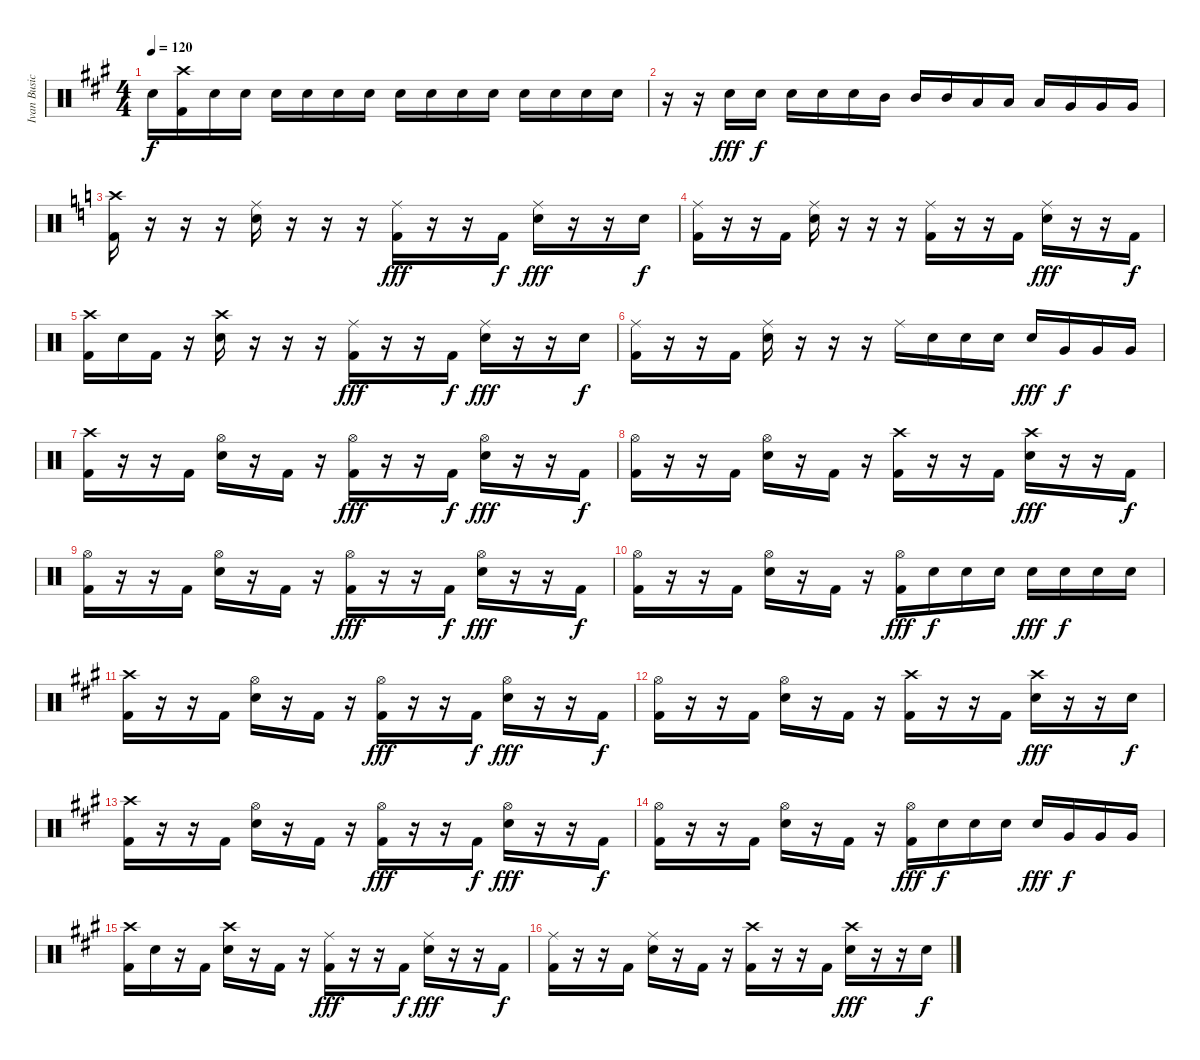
\track ("Ivan Busic" "Ivan Busic") {instrument percussion}
\staff {score}
\articulation defaults
\ts (4 4)
\tempo 120
\clef neutral
\ks a "Electric Snare (hit)".16{dy f}
("Crash high (hit)" "Kick (hit) 2").16 "Snare (hit)".16 "Snare (hit)".16 "Snare (hit)".16 "Snare (hit)".16 "Snare (hit)".16 "Snare (hit)".16 "Snare (hit)".16 "Snare (hit)".16 "Snare (hit)".16 "Snare (hit)".16 "Snare (hit)".16 "Snare (hit)".16 "Snare (hit)".16 "Snare (hit)".16 |
r.16 r.16 "Snare (hit)".16{dy fff} "Snare (hit)".16{dy f} "Electric Snare (hit)".16 "Electric Snare (hit)".16 "Electric Snare (hit)".16 "Mid Tom (hit)".16 "Mid Tom (hit)".16 "Mid Tom (hit)".16 "Low Tom (hit)".16 "Low Tom (hit)".16 "Low Tom (hit)".16 "Very Low Tom (hit)".16 "Very Low Tom (hit)".16 "Very Low Tom (hit)".16 |
\ks c
("Crash high (hit)" "Kick (hit) 2").16 r.16 r.16 r.16 ("Ride (middle)" "Electric Snare (hit)").16 r.16 r.16 r.16 ("Ride (middle)" "Kick (hit) 2").16{dy fff} r.16 r.16 "Kick (hit) 2".16{dy f} ("Ride (middle)" "Electric Snare (hit)").16{dy fff} r.16 r.16 "Snare (hit)".16{dy f} |
("Ride (middle)" "Kick (hit) 2").16 r.16 r.16 "Kick (hit) 2".16 ("Ride (middle)" "Electric Snare (hit)").16 r.16 r.16 r.16 ("Ride (middle)" "Kick (hit) 2").16 r.16 r.16 "Kick (hit) 2".16 ("Ride (middle)" "Electric Snare (hit)").16{dy fff} r.16 r.16 "Kick (hit) 2".16{dy f} |
("Crash high (hit)" "Kick (hit) 2").16 "Electric Snare (hit)".16 "Kick (hit) 2".16 r.16 ("Crash high (hit)" "Electric Snare (hit)").16 r.16 r.16 r.16 ("Ride (middle)" "Kick (hit) 2").16{dy fff} r.16 r.16 "Kick (hit) 2".16{dy f} ("Ride (middle)" "Electric Snare (hit)").16{dy fff} r.16 r.16 "Snare (hit)".16{dy f} |
("Ride (middle)" "Kick (hit) 2").16 r.16 r.16 "Kick (hit) 2".16 ("Ride (middle)" "Electric Snare (hit)").16 r.16 r.16 r.16 "Ride (middle)".16 "Electric Snare (hit)".16 "Electric Snare (hit)".16 "Electric Snare (hit)".16 "Electric Snare (hit)".16{dy fff} "Very Low Tom (hit)".16{dy f} "Very Low Tom (hit)".16 "Very Low Tom (hit)".16 |
("Crash high (hit)" "Kick (hit) 2").16 r.16 r.16 "Kick (hit) 2".16 ("Hi-Hat (open)" "Electric Snare (hit)").16 r.16 "Kick (hit) 2".16 r.16 ("Hi-Hat (open)" "Kick (hit) 2").16{dy fff} r.16 r.16 "Kick (hit) 2".16{dy f} ("Hi-Hat (open)" "Electric Snare (hit)").16{dy fff} r.16 r.16 "Kick (hit) 2".16{dy f} |
("Hi-Hat (open)" "Kick (hit) 2").16 r.16 r.16 "Kick (hit) 2".16 ("Hi-Hat (open)" "Electric Snare (hit)").16 r.16 "Kick (hit) 2".16 r.16 ("Crash high (hit)" "Kick (hit) 2").16 r.16 r.16 "Kick (hit) 2".16 ("Crash high (hit)" "Electric Snare (hit)").16{dy fff} r.16 r.16 "Kick (hit) 2".16{dy f} |
("Hi-Hat (open)" "Kick (hit) 2").16 r.16 r.16 "Kick (hit) 2".16 ("Hi-Hat (open)" "Electric Snare (hit)").16 r.16 "Kick (hit) 2".16 r.16 ("Hi-Hat (open)" "Kick (hit) 2").16{dy fff} r.16 r.16 "Kick (hit) 2".16{dy f} ("Hi-Hat (open)" "Electric Snare (hit)").16{dy fff} r.16 r.16 "Kick (hit) 2".16{dy f} |
("Hi-Hat (open)" "Kick (hit) 2").16 r.16 r.16 "Kick (hit) 2".16 ("Hi-Hat (open)" "Electric Snare (hit)").16 r.16 "Kick (hit) 2".16 r.16 ("Hi-Hat (open)" "Kick (hit) 2").16{dy fff} "Electric Snare (hit)".16{dy f} "Electric Snare (hit)".16 "Electric Snare (hit)".16 "Electric Snare (hit)".16{dy fff} "Electric Snare (hit)".16{dy f} "Electric Snare (hit)".16 "Electric Snare (hit)".16 |
\ks a
("Crash high (hit)" "Kick (hit) 2").16 r.16 r.16 "Kick (hit) 2".16 ("Hi-Hat (open)" "Electric Snare (hit)").16 r.16 "Kick (hit) 2".16 r.16 ("Hi-Hat (open)" "Kick (hit) 2").16{dy fff} r.16 r.16 "Kick (hit) 2".16{dy f} ("Hi-Hat (open)" "Electric Snare (hit)").16{dy fff} r.16 r.16 "Kick (hit) 2".16{dy f} |
("Hi-Hat (open)" "Kick (hit) 2").16 r.16 r.16 "Kick (hit) 2".16 ("Hi-Hat (open)" "Electric Snare (hit)").16 r.16 "Kick (hit) 2".16 r.16 ("Crash high (hit)" "Kick (hit) 2").16 r.16 r.16 "Kick (hit) 2".16 ("Crash high (hit)" "Electric Snare (hit)").16{dy fff} r.16 r.16 "Snare (hit)".16{dy f} |
("Crash high (hit)" "Kick (hit) 2").16 r.16 r.16 "Kick (hit) 2".16 ("Hi-Hat (open)" "Electric Snare (hit)").16 r.16 "Kick (hit) 2".16 r.16 ("Hi-Hat (open)" "Kick (hit) 2").16{dy fff} r.16 r.16 "Kick (hit) 2".16{dy f} ("Hi-Hat (open)" "Electric Snare (hit)").16{dy fff} r.16 r.16 "Kick (hit) 2".16{dy f} |
("Hi-Hat (open)" "Kick (hit) 2").16 r.16 r.16 "Kick (hit) 2".16 ("Hi-Hat (open)" "Electric Snare (hit)").16 r.16 "Kick (hit) 2".16 r.16 ("Hi-Hat (open)" "Kick (hit) 2").16{dy fff} "Electric Snare (hit)".16{dy f} "Electric Snare (hit)".16 "Electric Snare (hit)".16 "Electric Snare (hit)".16{dy fff} "Very Low Tom (hit)".16{dy f} "Very Low Tom (hit)".16 "Very Low Tom (hit)".16 |
("Crash high (hit)" "Kick (hit) 2").16 "Electric Snare (hit)".16 r.16 "Kick (hit) 2".16 ("Crash high (hit)" "Electric Snare (hit)").16 r.16 "Kick (hit) 2".16 r.16 ("Ride (middle)" "Kick (hit) 2").16{dy fff} r.16 r.16 "Kick (hit) 2".16{dy f} ("Ride (middle)" "Electric Snare (hit)").16{dy fff} r.16 r.16 "Kick (hit) 2".16{dy f} |
("Ride (middle)" "Kick (hit) 2").16 r.16 r.16 "Kick (hit) 2".16 ("Ride (middle)" "Electric Snare (hit)").16 r.16 "Kick (hit) 2".16 r.16 ("Crash high (hit)" "Kick (hit) 2").16 r.16 r.16 "Kick (hit) 2".16 ("Crash high (hit)" "Electric Snare (hit)").16{dy fff} r.16 r.16 "Snare (hit)".16{dy f}
